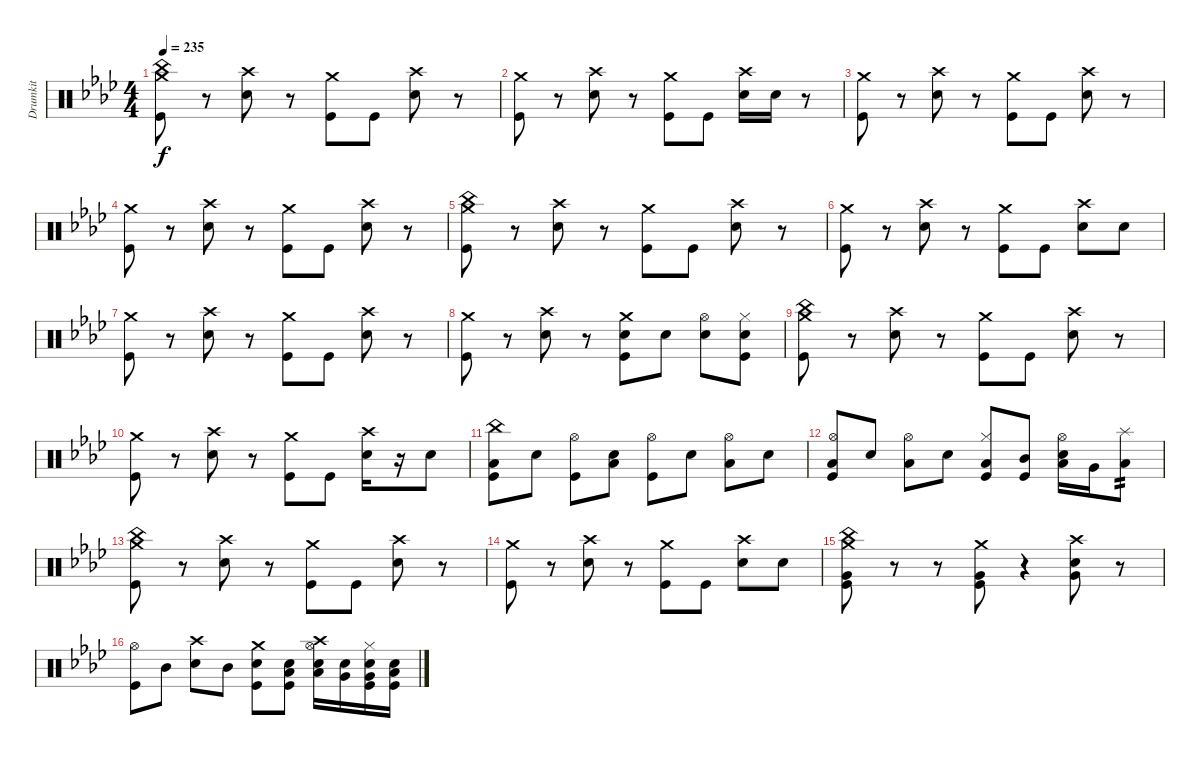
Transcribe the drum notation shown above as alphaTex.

\track ("Drumkit" "Drumkit") {instrument percussion}
\staff {score}
\articulation defaults
\ts (4 4)
\tempo 235
\clef neutral
\ks ab
("Crash medium (hit)" "China (hit)" "Kick (hit)").8{dy f} r.8 ("Crash high (hit)" "Electric Snare (hit)").8 r.8 ("Crash medium (hit)" "Kick (hit)").8 "Kick (hit)".8 ("Crash high (hit)" "Electric Snare (hit)").8 r.8 |
("Crash medium (hit)" "Kick (hit)").8 r.8 ("Crash high (hit)" "Electric Snare (hit)").8 r.8 ("Crash medium (hit)" "Kick (hit)").8 "Kick (hit)".8 ("Crash high (hit)" "Electric Snare (hit)").16 "Electric Snare (hit)".16 r.8 |
("Crash medium (hit)" "Kick (hit)").8 r.8 ("Crash high (hit)" "Electric Snare (hit)").8 r.8 ("Crash medium (hit)" "Kick (hit)").8 "Kick (hit)".8 ("Crash high (hit)" "Electric Snare (hit)").8 r.8 |
("Crash medium (hit)" "Kick (hit)").8 r.8 ("Crash high (hit)" "Electric Snare (hit)").8 r.8 ("Crash medium (hit)" "Kick (hit)").8 "Kick (hit)".8 ("Crash high (hit)" "Electric Snare (hit)").8 r.8 |
("Crash medium (hit)" "China (hit)" "Kick (hit)").8 r.8 ("Crash high (hit)" "Electric Snare (hit)").8 r.8 ("Crash medium (hit)" "Kick (hit)").8 "Kick (hit)".8 ("Crash high (hit)" "Electric Snare (hit)").8 r.8 |
("Crash medium (hit)" "Kick (hit)").8 r.8 ("Crash high (hit)" "Electric Snare (hit)").8 r.8 ("Crash medium (hit)" "Kick (hit)").8 "Kick (hit)".8 ("Crash high (hit)" "Electric Snare (hit)").8 "Electric Snare (hit)".8 |
("Crash medium (hit)" "Kick (hit)").8 r.8 ("Crash high (hit)" "Electric Snare (hit)").8 r.8 ("Crash medium (hit)" "Kick (hit)").8 "Kick (hit)".8 ("Crash high (hit)" "Electric Snare (hit)").8 r.8 |
("Crash medium (hit)" "Kick (hit)").8 r.8 ("Crash high (hit)" "Electric Snare (hit)").8 r.8 ("Crash medium (hit)" "Electric Snare (hit)" "Kick (hit)").8 "Electric Snare (hit)".8 ("Hi-Hat (open)" "Electric Snare (hit)").8 ("Hi-Hat (closed)" "Electric Snare (hit)" "Kick (hit)").8 |
("Crash medium (hit)" "China (hit)" "Kick (hit)").8 r.8 ("Crash high (hit)" "Electric Snare (hit)").8 r.8 ("Crash medium (hit)" "Kick (hit)").8 "Kick (hit)".8 ("Crash high (hit)" "Electric Snare (hit)").8 r.8 |
("Crash medium (hit)" "Kick (hit)").8 r.8 ("Crash high (hit)" "Electric Snare (hit)").8 r.8 ("Crash medium (hit)" "Kick (hit)").8 "Kick (hit)".8 ("Crash high (hit)" "Electric Snare (hit)").16 r.16 "Electric Snare (hit)".8 |
("China (hit)" "Low Tom (hit)" "Kick (hit)").8 "Electric Snare (hit)".8 ("Hi-Hat (open)" "Kick (hit)").8 ("Low Tom (hit)" "Electric Snare (hit)").8 ("Hi-Hat (open)" "Kick (hit)").8 "Electric Snare (hit)".8 ("Hi-Hat (open)" "Low Tom (hit)").8 "Electric Snare (hit)".8 |
("Hi-Hat (open)" "Low Tom (hit)" "Kick (hit)").8 "Electric Snare (hit)".8 ("Hi-Hat (open)" "Low Tom (hit)").8 "Electric Snare (hit)".8 ("Hi-Hat (closed)" "Low Tom (hit)" "Kick (hit)").8 ("Mid Tom (hit)" "Kick (hit)").8 ("Hi-Hat (open)" "Low Tom (hit)" "Electric Snare (hit)").16 "Very Low Tom (hit)".16 ("Splash (hit)" "Low Floor Tom (hit)").8{tp 2} |
("Crash medium (hit)" "China (hit)" "Kick (hit)").8 r.8 ("Crash high (hit)" "Electric Snare (hit)").8 r.8 ("Crash medium (hit)" "Kick (hit)").8 "Kick (hit)".8 ("Crash high (hit)" "Electric Snare (hit)").8 r.8 |
("Crash medium (hit)" "Kick (hit)").8 r.8 ("Crash high (hit)" "Electric Snare (hit)").8 r.8 ("Crash medium (hit)" "Kick (hit)").8 "Kick (hit)".8 ("Crash high (hit)" "Electric Snare (hit)").8 "Electric Snare (hit)".8 |
("Crash medium (hit)" "China (hit)" "Very Low Tom (hit)" "Kick (hit)").8 r.8 r.8 ("Crash medium (hit)" "Very Low Tom (hit)" "Kick (hit)").8 r.4 ("Crash high (hit)" "Very Low Tom (hit)" "Electric Snare (hit)").8 r.8 |
("Hi-Hat (open)" "Kick (hit)").8 "Mid Tom (hit)".8 ("Crash high (hit)" "Electric Snare (hit)").8 "Mid Tom (hit)".8 ("Crash medium (hit)" "Electric Snare (hit)" "Kick (hit)").8 ("Low Tom (hit)" "Electric Snare (hit)" "Kick (hit)").8 ("Crash high (hit)" "Hi-Hat (open)" "Low Tom (hit)" "Electric Snare (hit)").16 ("Very Low Tom (hit)" "Electric Snare (hit)").16 ("Hi-Hat (closed)" "Very Low Tom (hit)" "Electric Snare (hit)" "Kick (hit)").16 ("Low Floor Tom (hit)" "Electric Snare (hit)" "Kick (hit)").16
